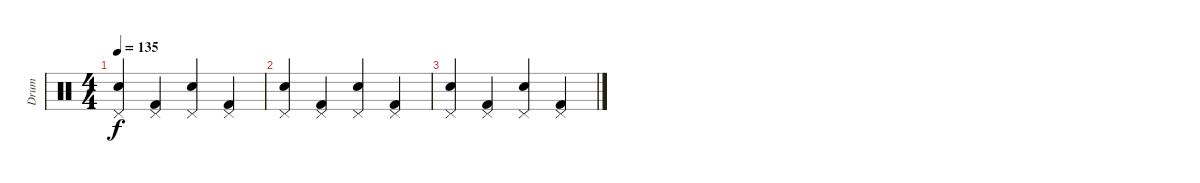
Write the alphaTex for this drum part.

\track ("Drum" "Drum") {instrument percussion}
\staff {score}
\articulation defaults
\ts (4 4)
\tempo 135
\clef neutral
\ks c
("Electric Snare (hit)" "Pedal Hi-Hat (hit)").4{dy f} ("Kick (hit) 2" "Pedal Hi-Hat (hit)").4 ("Electric Snare (hit)" "Pedal Hi-Hat (hit)").4 ("Kick (hit) 2" "Pedal Hi-Hat (hit)").4 |
("Electric Snare (hit)" "Pedal Hi-Hat (hit)").4 ("Kick (hit) 2" "Pedal Hi-Hat (hit)").4 ("Electric Snare (hit)" "Pedal Hi-Hat (hit)").4 ("Kick (hit) 2" "Pedal Hi-Hat (hit)").4 |
("Electric Snare (hit)" "Pedal Hi-Hat (hit)").4 ("Kick (hit) 2" "Pedal Hi-Hat (hit)").4 ("Electric Snare (hit)" "Pedal Hi-Hat (hit)").4 ("Kick (hit) 2" "Pedal Hi-Hat (hit)").4
